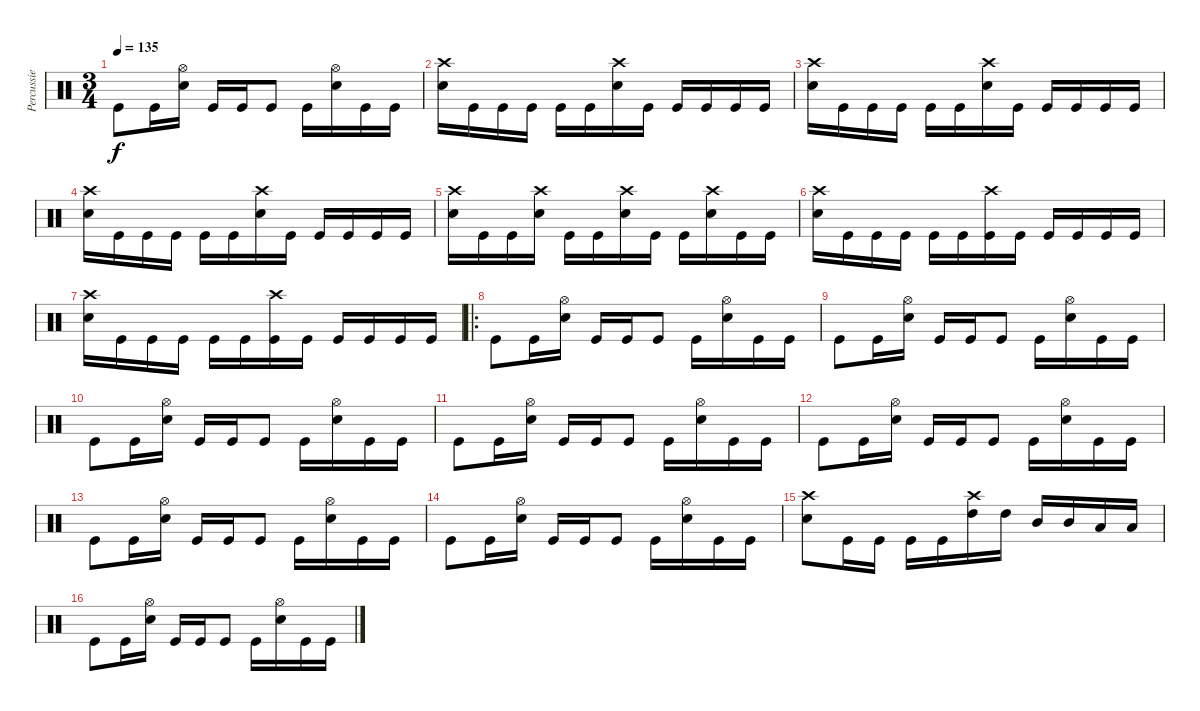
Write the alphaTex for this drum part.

\track ("Percussie" "Percussie") {instrument percussion}
\staff {score}
\articulation defaults
\ts (3 4)
\tempo 135
\clef neutral
\ks c "Kick (hit)".8{dy f} "Kick (hit)".16
("Hi-Hat (open)" "Snare (hit) 2").16 "Kick (hit)".16 "Kick (hit)".16 "Kick (hit)".8 "Kick (hit)".16 ("Hi-Hat (open)" "Snare (hit) 2").16 "Kick (hit)".16 "Kick (hit)".16 |
("Crash high (hit)" "Snare (hit) 2").16 "Kick (hit)".16 "Kick (hit)".16 "Kick (hit)".16 "Kick (hit)".16 "Kick (hit)".16 ("Crash high (hit)" "Snare (hit) 2").16 "Kick (hit)".16 "Kick (hit)".16 "Kick (hit)".16 "Kick (hit)".16 "Kick (hit)".16 |
("Crash high (hit)" "Snare (hit) 2").16 "Kick (hit)".16 "Kick (hit)".16 "Kick (hit)".16 "Kick (hit)".16 "Kick (hit)".16 ("Crash high (hit)" "Snare (hit) 2").16 "Kick (hit)".16 "Kick (hit)".16 "Kick (hit)".16 "Kick (hit)".16 "Kick (hit)".16 |
("Crash high (hit)" "Snare (hit) 2").16 "Kick (hit)".16 "Kick (hit)".16 "Kick (hit)".16 "Kick (hit)".16 "Kick (hit)".16 ("Crash high (hit)" "Snare (hit) 2").16 "Kick (hit)".16 "Kick (hit)".16 "Kick (hit)".16 "Kick (hit)".16 "Kick (hit)".16 |
("Crash high (hit)" "Snare (hit) 2").16 "Kick (hit)".16 "Kick (hit)".16 ("Crash high (hit)" "Snare (hit) 2").16 "Kick (hit)".16 "Kick (hit)".16 ("Crash high (hit)" "Snare (hit) 2").16 "Kick (hit)".16 "Kick (hit)".16 ("Crash high (hit)" "Snare (hit) 2").16 "Kick (hit)".16 "Kick (hit)".16 |
("Crash high (hit)" "Snare (hit) 2").16 "Kick (hit)".16 "Kick (hit)".16 "Kick (hit)".16 "Kick (hit)".16 "Kick (hit)".16 ("Crash high (hit)" "Kick (hit)").16 "Kick (hit)".16 "Kick (hit)".16 "Kick (hit)".16 "Kick (hit)".16 "Kick (hit)".16 |
("Crash high (hit)" "Snare (hit) 2").16 "Kick (hit)".16 "Kick (hit)".16 "Kick (hit)".16 "Kick (hit)".16 "Kick (hit)".16 ("Crash high (hit)" "Kick (hit)").16 "Kick (hit)".16 "Kick (hit)".16 "Kick (hit)".16 "Kick (hit)".16 "Kick (hit)".16 |
\ro "Kick (hit)".8 "Kick (hit)".16
("Hi-Hat (open)" "Snare (hit) 2").16 "Kick (hit)".16 "Kick (hit)".16 "Kick (hit)".8 "Kick (hit)".16 ("Hi-Hat (open)" "Snare (hit) 2").16 "Kick (hit)".16 "Kick (hit)".16 |
"Kick (hit)".8 "Kick (hit)".16 ("Hi-Hat (open)" "Snare (hit) 2").16 "Kick (hit)".16 "Kick (hit)".16 "Kick (hit)".8 "Kick (hit)".16 ("Hi-Hat (open)" "Snare (hit) 2").16 "Kick (hit)".16 "Kick (hit)".16 |
"Kick (hit)".8 "Kick (hit)".16 ("Hi-Hat (open)" "Snare (hit) 2").16 "Kick (hit)".16 "Kick (hit)".16 "Kick (hit)".8 "Kick (hit)".16 ("Hi-Hat (open)" "Snare (hit) 2").16 "Kick (hit)".16 "Kick (hit)".16 |
"Kick (hit)".8 "Kick (hit)".16 ("Hi-Hat (open)" "Snare (hit) 2").16 "Kick (hit)".16 "Kick (hit)".16 "Kick (hit)".8 "Kick (hit)".16 ("Hi-Hat (open)" "Snare (hit) 2").16 "Kick (hit)".16 "Kick (hit)".16 |
"Kick (hit)".8 "Kick (hit)".16 ("Hi-Hat (open)" "Snare (hit) 2").16 "Kick (hit)".16 "Kick (hit)".16 "Kick (hit)".8 "Kick (hit)".16 ("Hi-Hat (open)" "Snare (hit) 2").16 "Kick (hit)".16 "Kick (hit)".16 |
"Kick (hit)".8 "Kick (hit)".16 ("Hi-Hat (open)" "Snare (hit) 2").16 "Kick (hit)".16 "Kick (hit)".16 "Kick (hit)".8 "Kick (hit)".16 ("Hi-Hat (open)" "Snare (hit) 2").16 "Kick (hit)".16 "Kick (hit)".16 |
"Kick (hit)".8 "Kick (hit)".16 ("Hi-Hat (open)" "Snare (hit) 2").16 "Kick (hit)".16 "Kick (hit)".16 "Kick (hit)".8 "Kick (hit)".16 ("Hi-Hat (open)" "Snare (hit) 2").16 "Kick (hit)".16 "Kick (hit)".16 |
("Crash high (hit)" "Snare (hit) 2").8 "Kick (hit)".16 "Kick (hit)".16 "Kick (hit)".16 "Kick (hit)".16 ("Crash high (hit)" "High Tom (hit)").16 "High Tom (hit)".16 "Mid Tom (hit)".16 "Mid Tom (hit)".16 "Low Tom (hit)".16 "Low Tom (hit)".16 |
"Kick (hit)".8 "Kick (hit)".16 ("Hi-Hat (open)" "Snare (hit) 2").16 "Kick (hit)".16 "Kick (hit)".16 "Kick (hit)".8 "Kick (hit)".16 ("Hi-Hat (open)" "Snare (hit) 2").16 "Kick (hit)".16 "Kick (hit)".16
